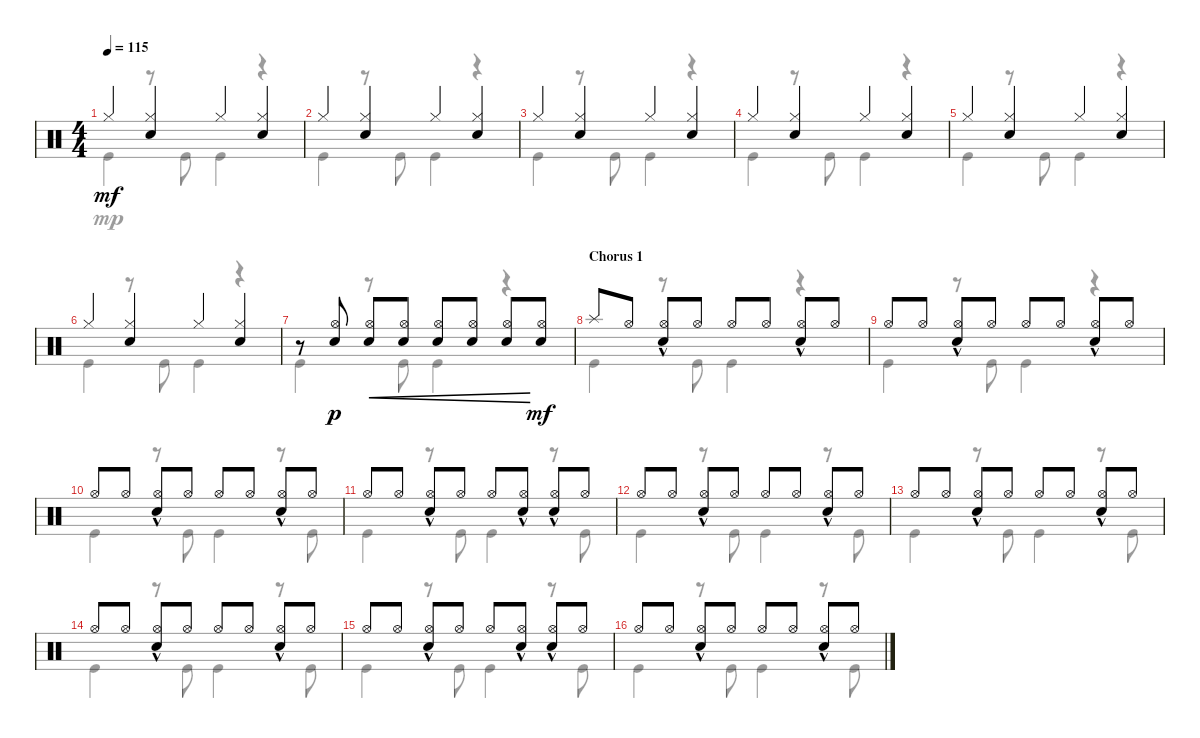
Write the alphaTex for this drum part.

\defaultSystemsLayout 4
\bracketExtendMode nobrackets
\singleTrackTrackNamePolicy hidden
\multiTrackTrackNamePolicy hidden
\firstSystemTrackNameOrientation horizontal
\otherSystemsTrackNameOrientation horizontal
\track ("Drums" "Drums") {instrument percussion}
\staff {score}
\articulation defaults
\voice
\ts (4 4)
\tempo 115
\clef neutral
\ks c "Hi-Hat (closed)".4{dy mf}
("Hi-Hat (closed)" "Snare (hit) 2").4 "Hi-Hat (closed)".4 ("Hi-Hat (closed)" "Snare (hit) 2").4 |
"Hi-Hat (closed)".4 ("Hi-Hat (closed)" "Snare (hit) 2").4 "Hi-Hat (closed)".4 ("Hi-Hat (closed)" "Snare (hit) 2").4 |
"Hi-Hat (closed)".4 ("Hi-Hat (closed)" "Snare (hit) 2").4 "Hi-Hat (closed)".4 ("Hi-Hat (closed)" "Snare (hit) 2").4 |
\scale
0.217919 "Hi-Hat (closed)".4 ("Hi-Hat (closed)" "Snare (hit) 2").4 "Hi-Hat (closed)".4 ("Hi-Hat (closed)" "Snare (hit) 2").4 |
\scale
0.273169 "Hi-Hat (closed)".4 ("Hi-Hat (closed)" "Snare (hit) 2").4 "Hi-Hat (closed)".4 ("Hi-Hat (closed)" "Snare (hit) 2").4 |
\scale
0.167194 "Hi-Hat (closed)".4 ("Hi-Hat (closed)" "Snare (hit) 2").4 "Hi-Hat (closed)".4 ("Hi-Hat (closed)" "Snare (hit) 2").4 |
\scale
0.338104 r.8 ("Snare (hit) 2" "Hi-Hat (open)").8{dy p} ("Snare (hit) 2" "Hi-Hat (open)").8{cre} ("Snare (hit) 2" "Hi-Hat (open)").8{cre} ("Snare (hit) 2" "Hi-Hat (open)").8{cre} ("Snare (hit) 2" "Hi-Hat (open)").8{cre} ("Snare (hit) 2" "Hi-Hat (open)").8{cre} ("Snare (hit) 2" "Hi-Hat (open)").8{dy mf} |
\section ("" "Chorus 1")
"Splash (hit)".8 "Hi-Hat (open)".8 ("Hi-Hat (open)"{hac} "Snare (hit) 2").8 "Hi-Hat (open)".8 "Hi-Hat (open)".8 "Hi-Hat (open)".8 ("Hi-Hat (open)"{hac} "Snare (hit) 2").8 "Hi-Hat (open)".8 |
"Hi-Hat (open)".8 "Hi-Hat (open)".8 ("Hi-Hat (open)"{hac} "Snare (hit) 2").8 "Hi-Hat (open)".8 "Hi-Hat (open)".8 "Hi-Hat (open)".8 ("Hi-Hat (open)"{hac} "Snare (hit) 2").8 "Hi-Hat (open)".8 |
"Hi-Hat (open)".8 "Hi-Hat (open)".8 ("Hi-Hat (open)"{hac} "Snare (hit) 2").8 "Hi-Hat (open)".8 "Hi-Hat (open)".8 "Hi-Hat (open)".8 ("Hi-Hat (open)"{hac} "Snare (hit) 2").8 "Hi-Hat (open)".8 |
"Hi-Hat (open)".8 "Hi-Hat (open)".8 ("Hi-Hat (open)"{hac} "Snare (hit) 2").8 "Hi-Hat (open)".8 "Hi-Hat (open)".8 ("Hi-Hat (open)"{hac} "Snare (hit) 2").8 ("Hi-Hat (open)"{hac} "Snare (hit) 2").8 "Hi-Hat (open)".8 |
"Hi-Hat (open)".8 "Hi-Hat (open)".8 ("Hi-Hat (open)"{hac} "Snare (hit) 2").8 "Hi-Hat (open)".8 "Hi-Hat (open)".8 "Hi-Hat (open)".8 ("Hi-Hat (open)"{hac} "Snare (hit) 2").8 "Hi-Hat (open)".8 |
"Hi-Hat (open)".8 "Hi-Hat (open)".8 ("Hi-Hat (open)"{hac} "Snare (hit) 2").8 "Hi-Hat (open)".8 "Hi-Hat (open)".8 "Hi-Hat (open)".8 ("Hi-Hat (open)"{hac} "Snare (hit) 2").8 "Hi-Hat (open)".8 |
"Hi-Hat (open)".8 "Hi-Hat (open)".8 ("Hi-Hat (open)"{hac} "Snare (hit) 2").8 "Hi-Hat (open)".8 "Hi-Hat (open)".8 "Hi-Hat (open)".8 ("Hi-Hat (open)"{hac} "Snare (hit) 2").8 "Hi-Hat (open)".8 |
"Hi-Hat (open)".8 "Hi-Hat (open)".8 ("Hi-Hat (open)"{hac} "Snare (hit) 2").8 "Hi-Hat (open)".8 "Hi-Hat (open)".8 ("Hi-Hat (open)"{hac} "Snare (hit) 2").8 ("Hi-Hat (open)"{hac} "Snare (hit) 2").8 "Hi-Hat (open)".8 |
"Hi-Hat (open)".8 "Hi-Hat (open)".8 ("Hi-Hat (open)"{hac} "Snare (hit) 2").8 "Hi-Hat (open)".8 "Hi-Hat (open)".8 "Hi-Hat (open)".8 ("Hi-Hat (open)"{hac} "Snare (hit) 2").8 "Hi-Hat (open)".8
\voice
\clef neutral
\ottava regular
\simile none
\ks c "Kick (hit)".4{dy mp}
r.8 "Kick (hit)".8 "Kick (hit)".4 r.4 |
"Kick (hit)".4 r.8 "Kick (hit)".8 "Kick (hit)".4 r.4 |
"Kick (hit)".4 r.8 "Kick (hit)".8 "Kick (hit)".4 r.4 |
\scale
0.217919 "Kick (hit)".4 r.8 "Kick (hit)".8 "Kick (hit)".4 r.4 |
\scale
0.273169 "Kick (hit)".4 r.8 "Kick (hit)".8 "Kick (hit)".4 r.4 |
\scale
0.167194 "Kick (hit)".4 r.8 "Kick (hit)".8 "Kick (hit)".4 r.4 |
\scale
0.338104 "Kick (hit)".4 r.8 "Kick (hit)".8 "Kick (hit)".4 r.4 |
"Kick (hit)".4 r.8 "Kick (hit)".8 "Kick (hit)".4 r.4 |
"Kick (hit)".4 r.8 "Kick (hit)".8 "Kick (hit)".4 r.4 |
"Kick (hit)".4 r.8 "Kick (hit)".8 "Kick (hit)".4 r.8 "Kick (hit)".8 |
"Kick (hit)".4 r.8 "Kick (hit)".8 "Kick (hit)".4 r.8 "Kick (hit)".8 |
"Kick (hit)".4 r.8 "Kick (hit)".8 "Kick (hit)".4 r.8 "Kick (hit)".8 |
"Kick (hit)".4 r.8 "Kick (hit)".8 "Kick (hit)".4 r.8 "Kick (hit)".8 |
"Kick (hit)".4 r.8 "Kick (hit)".8 "Kick (hit)".4 r.8 "Kick (hit)".8 |
"Kick (hit)".4 r.8 "Kick (hit)".8 "Kick (hit)".4 r.8 "Kick (hit)".8 |
"Kick (hit)".4 r.8 "Kick (hit)".8 "Kick (hit)".4 r.8 "Kick (hit)".8
